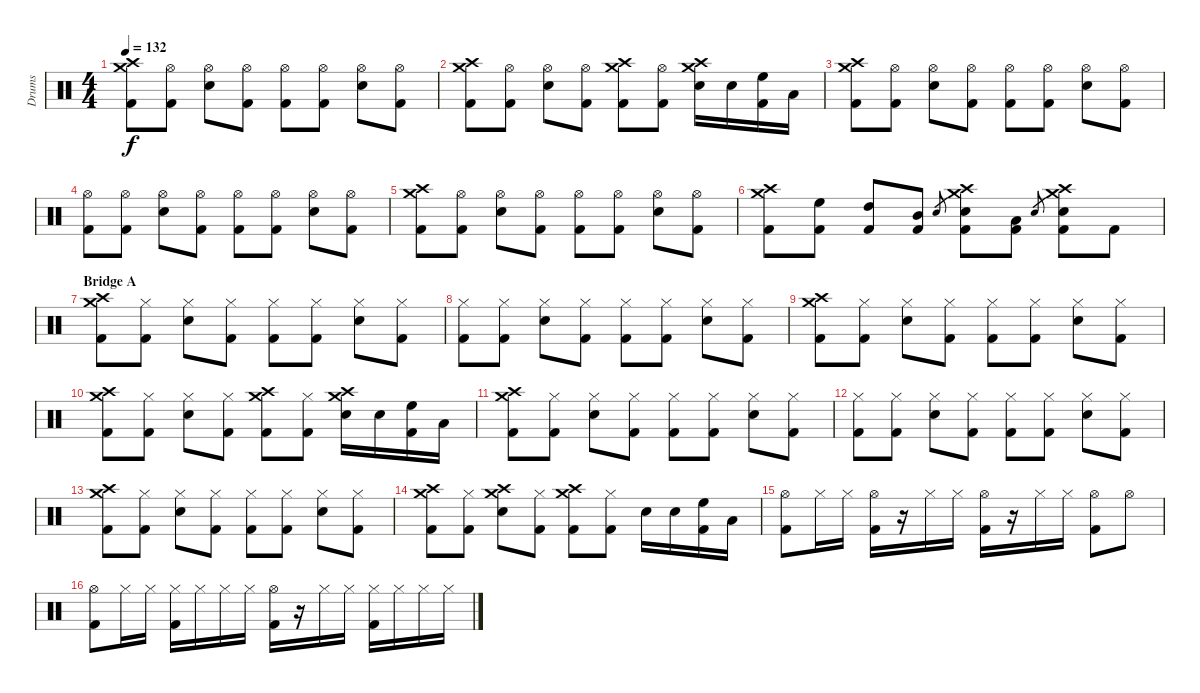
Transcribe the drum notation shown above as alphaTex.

\track ("Drums" "Drums") {instrument percussion}
\staff {score}
\articulation defaults
\ts (4 4)
\tempo 132
\clef neutral
\ks c
("Crash medium (hit)" "Crash high (hit)" "Kick (hit) 2").8{dy f} ("Hi-Hat (open)" "Kick (hit) 2").8 ("Hi-Hat (open)" "Electric Snare (hit)").8 ("Hi-Hat (open)" "Kick (hit) 2").8 ("Hi-Hat (open)" "Kick (hit) 2").8 ("Hi-Hat (open)" "Kick (hit) 2").8 ("Hi-Hat (open)" "Electric Snare (hit)").8 ("Hi-Hat (open)" "Kick (hit) 2").8 |
("Crash medium (hit)" "Crash high (hit)" "Kick (hit) 2").8 ("Hi-Hat (open)" "Kick (hit) 2").8 ("Hi-Hat (open)" "Electric Snare (hit)").8 ("Hi-Hat (open)" "Kick (hit) 2").8 ("Crash medium (hit)" "Crash high (hit)" "Kick (hit) 2").8 ("Hi-Hat (open)" "Kick (hit) 2").8 ("Crash medium (hit)" "Crash high (hit)" "Electric Snare (hit)").16 "Electric Snare (hit)".16 ("High Floor Tom (hit)" "Kick (hit) 2").16 "Low Tom (hit)".16 |
("Crash medium (hit)" "Crash high (hit)" "Kick (hit) 2").8 ("Hi-Hat (open)" "Kick (hit) 2").8 ("Hi-Hat (open)" "Electric Snare (hit)").8 ("Hi-Hat (open)" "Kick (hit) 2").8 ("Hi-Hat (open)" "Kick (hit) 2").8 ("Hi-Hat (open)" "Kick (hit) 2").8 ("Hi-Hat (open)" "Electric Snare (hit)").8 ("Hi-Hat (open)" "Kick (hit) 2").8 |
("Hi-Hat (open)" "Kick (hit) 2").8 ("Hi-Hat (open)" "Kick (hit) 2").8 ("Hi-Hat (open)" "Electric Snare (hit)").8 ("Hi-Hat (open)" "Kick (hit) 2").8 ("Hi-Hat (open)" "Kick (hit) 2").8 ("Hi-Hat (open)" "Kick (hit) 2").8 ("Hi-Hat (open)" "Electric Snare (hit)").8 ("Hi-Hat (open)" "Kick (hit) 2").8 |
("Crash medium (hit)" "Crash high (hit)" "Kick (hit) 2").8 ("Hi-Hat (open)" "Kick (hit) 2").8 ("Hi-Hat (open)" "Electric Snare (hit)").8 ("Hi-Hat (open)" "Kick (hit) 2").8 ("Hi-Hat (open)" "Kick (hit) 2").8 ("Hi-Hat (open)" "Kick (hit) 2").8 ("Hi-Hat (open)" "Electric Snare (hit)").8 ("Hi-Hat (open)" "Kick (hit) 2").8 |
("Crash medium (hit)" "Crash high (hit)" "Kick (hit) 2").8 ("High Floor Tom (hit)" "Kick (hit) 2").8 ("High Tom (hit)" "Kick (hit) 2").8 ("Mid Tom (hit)" "Kick (hit) 2").8 "Electric Snare (hit)".8{gr} ("Crash medium (hit)" "Crash high (hit)" "Electric Snare (hit)" "Kick (hit) 2").8 ("Low Tom (hit)" "Kick (hit) 2").8 "Electric Snare (hit)".8{gr} ("Crash medium (hit)" "Crash high (hit)" "Electric Snare (hit)" "Kick (hit) 2").8 "Kick (hit) 2".8 |
\section ("" "Bridge A")
("Crash medium (hit)" "Crash high (hit)" "Kick (hit) 2").8 ("Hi-Hat (closed)" "Kick (hit) 2").8 ("Hi-Hat (closed)" "Electric Snare (hit)").8 ("Hi-Hat (closed)" "Kick (hit) 2").8 ("Hi-Hat (closed)" "Kick (hit) 2").8 ("Hi-Hat (closed)" "Kick (hit) 2").8 ("Hi-Hat (closed)" "Electric Snare (hit)").8 ("Hi-Hat (closed)" "Kick (hit) 2").8 |
("Hi-Hat (closed)" "Kick (hit) 2").8 ("Hi-Hat (closed)" "Kick (hit) 2").8 ("Hi-Hat (closed)" "Electric Snare (hit)").8 ("Hi-Hat (closed)" "Kick (hit) 2").8 ("Hi-Hat (closed)" "Kick (hit) 2").8 ("Hi-Hat (closed)" "Kick (hit) 2").8 ("Hi-Hat (closed)" "Electric Snare (hit)").8 ("Hi-Hat (closed)" "Kick (hit) 2").8 |
("Crash medium (hit)" "Crash high (hit)" "Kick (hit) 2").8 ("Hi-Hat (closed)" "Kick (hit) 2").8 ("Hi-Hat (closed)" "Electric Snare (hit)").8 ("Hi-Hat (closed)" "Kick (hit) 2").8 ("Hi-Hat (closed)" "Kick (hit) 2").8 ("Hi-Hat (closed)" "Kick (hit) 2").8 ("Hi-Hat (closed)" "Electric Snare (hit)").8 ("Hi-Hat (closed)" "Kick (hit) 2").8 |
("Crash medium (hit)" "Crash high (hit)" "Kick (hit) 2").8 ("Hi-Hat (closed)" "Kick (hit) 2").8 ("Hi-Hat (closed)" "Electric Snare (hit)").8 ("Hi-Hat (closed)" "Kick (hit) 2").8 ("Crash medium (hit)" "Crash high (hit)" "Kick (hit) 2").8 ("Hi-Hat (closed)" "Kick (hit) 2").8 ("Crash medium (hit)" "Crash high (hit)" "Electric Snare (hit)").16 "Electric Snare (hit)".16 ("High Floor Tom (hit)" "Kick (hit) 2").16 "Low Tom (hit)".16 |
("Crash medium (hit)" "Crash high (hit)" "Kick (hit) 2").8 ("Hi-Hat (closed)" "Kick (hit) 2").8 ("Hi-Hat (closed)" "Electric Snare (hit)").8 ("Hi-Hat (closed)" "Kick (hit) 2").8 ("Hi-Hat (closed)" "Kick (hit) 2").8 ("Hi-Hat (closed)" "Kick (hit) 2").8 ("Hi-Hat (closed)" "Electric Snare (hit)").8 ("Hi-Hat (closed)" "Kick (hit) 2").8 |
("Hi-Hat (closed)" "Kick (hit) 2").8 ("Hi-Hat (closed)" "Kick (hit) 2").8 ("Hi-Hat (closed)" "Electric Snare (hit)").8 ("Hi-Hat (closed)" "Kick (hit) 2").8 ("Hi-Hat (closed)" "Kick (hit) 2").8 ("Hi-Hat (closed)" "Kick (hit) 2").8 ("Hi-Hat (closed)" "Electric Snare (hit)").8 ("Hi-Hat (closed)" "Kick (hit) 2").8 |
("Crash medium (hit)" "Crash high (hit)" "Kick (hit) 2").8 ("Hi-Hat (closed)" "Kick (hit) 2").8 ("Hi-Hat (closed)" "Electric Snare (hit)").8 ("Hi-Hat (closed)" "Kick (hit) 2").8 ("Hi-Hat (closed)" "Kick (hit) 2").8 ("Hi-Hat (closed)" "Kick (hit) 2").8 ("Hi-Hat (closed)" "Electric Snare (hit)").8 ("Hi-Hat (closed)" "Kick (hit) 2").8 |
("Crash medium (hit)" "Crash high (hit)" "Kick (hit) 2").8 ("Hi-Hat (closed)" "Kick (hit) 2").8 ("Crash medium (hit)" "Crash high (hit)" "Electric Snare (hit)").8 ("Hi-Hat (closed)" "Kick (hit) 2").8 ("Crash medium (hit)" "Crash high (hit)" "Kick (hit) 2").8 ("Hi-Hat (closed)" "Kick (hit) 2").8 "Electric Snare (hit)".16 "Electric Snare (hit)".16 ("High Floor Tom (hit)" "Kick (hit) 2").16 "Low Tom (hit)".16 |
("Hi-Hat (open)" "Kick (hit) 2").8 "Hi-Hat (closed)".16 "Hi-Hat (closed)".16 ("Hi-Hat (open)" "Kick (hit) 2").16 r.16 "Hi-Hat (closed)".16 "Hi-Hat (closed)".16 ("Hi-Hat (open)" "Kick (hit) 2").16 r.16 "Hi-Hat (closed)".16 "Hi-Hat (closed)".16 ("Hi-Hat (open)" "Kick (hit) 2").8 "Hi-Hat (open)".8 |
("Hi-Hat (open)" "Kick (hit) 2").8 "Hi-Hat (closed)".16 "Hi-Hat (closed)".16 ("Hi-Hat (closed)" "Kick (hit) 2").16 "Hi-Hat (closed)".16 "Hi-Hat (closed)".16 "Hi-Hat (closed)".16 ("Hi-Hat (open)" "Kick (hit) 2").16 r.16 "Hi-Hat (closed)".16 "Hi-Hat (closed)".16 ("Hi-Hat (closed)" "Kick (hit) 2").16 "Hi-Hat (closed)".16 "Hi-Hat (closed)".16 "Hi-Hat (closed)".16
